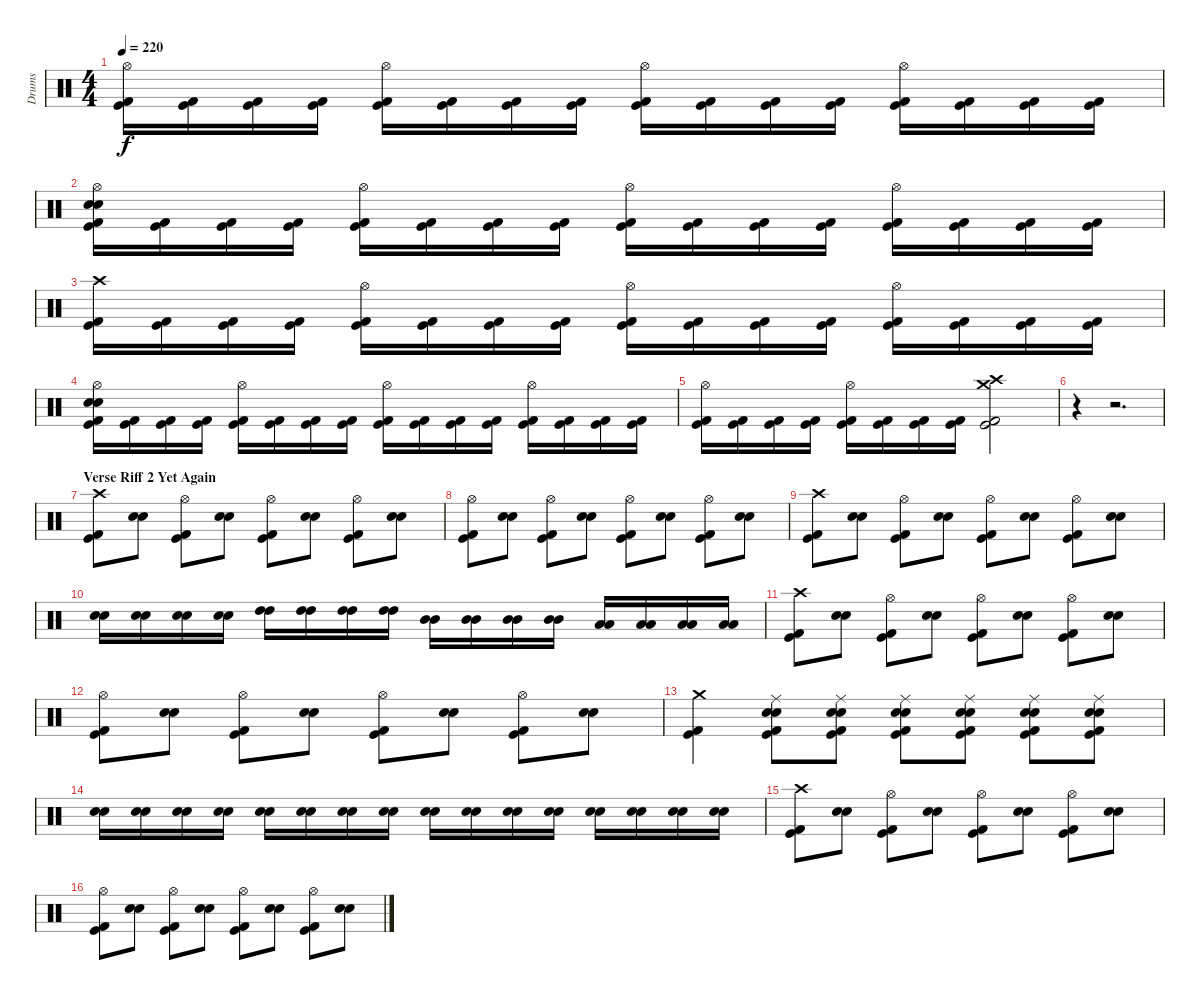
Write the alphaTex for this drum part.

\track ("Drums" "Drums") {instrument percussion}
\staff {score}
\articulation defaults
\ts (4 4)
\tempo 220
\clef neutral
\ks c
("Hi-Hat (open)" "Kick (hit) 2" "Kick (hit)").16{dy f} ("Kick (hit) 2" "Kick (hit)").16 ("Kick (hit) 2" "Kick (hit)").16 ("Kick (hit) 2" "Kick (hit)").16 ("Hi-Hat (open)" "Kick (hit) 2" "Kick (hit)").16 ("Kick (hit) 2" "Kick (hit)").16 ("Kick (hit) 2" "Kick (hit)").16 ("Kick (hit) 2" "Kick (hit)").16 ("Hi-Hat (open)" "Kick (hit) 2" "Kick (hit)").16 ("Kick (hit) 2" "Kick (hit)").16 ("Kick (hit) 2" "Kick (hit)").16 ("Kick (hit) 2" "Kick (hit)").16 ("Hi-Hat (open)" "Kick (hit) 2" "Kick (hit)").16 ("Kick (hit) 2" "Kick (hit)").16 ("Kick (hit) 2" "Kick (hit)").16 ("Kick (hit) 2" "Kick (hit)").16 |
("Hi-Hat (open)" "Electric Snare (hit)" "Electric Snare (hit)" "Kick (hit) 2" "Kick (hit)").16 ("Kick (hit) 2" "Kick (hit)").16 ("Kick (hit) 2" "Kick (hit)").16 ("Kick (hit) 2" "Kick (hit)").16 ("Hi-Hat (open)" "Kick (hit) 2" "Kick (hit)").16 ("Kick (hit) 2" "Kick (hit)").16 ("Kick (hit) 2" "Kick (hit)").16 ("Kick (hit) 2" "Kick (hit)").16 ("Hi-Hat (open)" "Kick (hit) 2" "Kick (hit)").16 ("Kick (hit) 2" "Kick (hit)").16 ("Kick (hit) 2" "Kick (hit)").16 ("Kick (hit) 2" "Kick (hit)").16 ("Hi-Hat (open)" "Kick (hit) 2" "Kick (hit)").16 ("Kick (hit) 2" "Kick (hit)").16 ("Kick (hit) 2" "Kick (hit)").16 ("Kick (hit) 2" "Kick (hit)").16 |
("Crash high (hit)" "Kick (hit) 2" "Kick (hit)").16 ("Kick (hit) 2" "Kick (hit)").16 ("Kick (hit) 2" "Kick (hit)").16 ("Kick (hit) 2" "Kick (hit)").16 ("Hi-Hat (open)" "Kick (hit) 2" "Kick (hit)").16 ("Kick (hit) 2" "Kick (hit)").16 ("Kick (hit) 2" "Kick (hit)").16 ("Kick (hit) 2" "Kick (hit)").16 ("Hi-Hat (open)" "Kick (hit) 2" "Kick (hit)").16 ("Kick (hit) 2" "Kick (hit)").16 ("Kick (hit) 2" "Kick (hit)").16 ("Kick (hit) 2" "Kick (hit)").16 ("Hi-Hat (open)" "Kick (hit) 2" "Kick (hit)").16 ("Kick (hit) 2" "Kick (hit)").16 ("Kick (hit) 2" "Kick (hit)").16 ("Kick (hit) 2" "Kick (hit)").16 |
("Hi-Hat (open)" "Electric Snare (hit)" "Electric Snare (hit)" "Kick (hit) 2" "Kick (hit)").16 ("Kick (hit) 2" "Kick (hit)").16 ("Kick (hit) 2" "Kick (hit)").16 ("Kick (hit) 2" "Kick (hit)").16 ("Hi-Hat (open)" "Kick (hit) 2" "Kick (hit)").16 ("Kick (hit) 2" "Kick (hit)").16 ("Kick (hit) 2" "Kick (hit)").16 ("Kick (hit) 2" "Kick (hit)").16 ("Hi-Hat (open)" "Kick (hit) 2" "Kick (hit)").16 ("Kick (hit) 2" "Kick (hit)").16 ("Kick (hit) 2" "Kick (hit)").16 ("Kick (hit) 2" "Kick (hit)").16 ("Hi-Hat (open)" "Kick (hit) 2" "Kick (hit)").16 ("Kick (hit) 2" "Kick (hit)").16 ("Kick (hit) 2" "Kick (hit)").16 ("Kick (hit) 2" "Kick (hit)").16 |
("Hi-Hat (open)" "Kick (hit) 2" "Kick (hit)").16 ("Kick (hit) 2" "Kick (hit)").16 ("Kick (hit) 2" "Kick (hit)").16 ("Kick (hit) 2" "Kick (hit)").16 ("Hi-Hat (open)" "Kick (hit) 2" "Kick (hit)").16 ("Kick (hit) 2" "Kick (hit)").16 ("Kick (hit) 2" "Kick (hit)").16 ("Kick (hit) 2" "Kick (hit)").16 ("Crash high (hit)" "Crash medium (hit)" "Kick (hit) 2" "Kick (hit)").2 |
r.4 r.2{d} |
\section ("" "Verse Riff 2 Yet Again")
("Crash high (hit)" "Kick (hit) 2" "Kick (hit)").8 ("Electric Snare (hit)" "Electric Snare (hit)").8 ("Hi-Hat (open)" "Kick (hit) 2" "Kick (hit)").8 ("Electric Snare (hit)" "Electric Snare (hit)").8 ("Hi-Hat (open)" "Kick (hit) 2" "Kick (hit)").8 ("Electric Snare (hit)" "Electric Snare (hit)").8 ("Hi-Hat (open)" "Kick (hit) 2" "Kick (hit)").8 ("Electric Snare (hit)" "Electric Snare (hit)").8 |
("Hi-Hat (open)" "Kick (hit) 2" "Kick (hit)").8 ("Electric Snare (hit)" "Electric Snare (hit)").8 ("Hi-Hat (open)" "Kick (hit) 2" "Kick (hit)").8 ("Electric Snare (hit)" "Electric Snare (hit)").8 ("Hi-Hat (open)" "Kick (hit) 2" "Kick (hit)").8 ("Electric Snare (hit)" "Electric Snare (hit)").8 ("Hi-Hat (open)" "Kick (hit) 2" "Kick (hit)").8 ("Electric Snare (hit)" "Electric Snare (hit)").8 |
("Crash high (hit)" "Kick (hit) 2" "Kick (hit)").8 ("Electric Snare (hit)" "Electric Snare (hit)").8 ("Hi-Hat (open)" "Kick (hit) 2" "Kick (hit)").8 ("Electric Snare (hit)" "Electric Snare (hit)").8 ("Hi-Hat (open)" "Kick (hit) 2" "Kick (hit)").8 ("Electric Snare (hit)" "Electric Snare (hit)").8 ("Hi-Hat (open)" "Kick (hit) 2" "Kick (hit)").8 ("Electric Snare (hit)" "Electric Snare (hit)").8 |
("Electric Snare (hit)" "Electric Snare (hit)").16 ("Electric Snare (hit)" "Electric Snare (hit)").16 ("Electric Snare (hit)" "Electric Snare (hit)").16 ("Electric Snare (hit)" "Electric Snare (hit)").16 ("High Tom (hit)" "High Tom (hit)").16 ("High Tom (hit)" "High Tom (hit)").16 ("High Tom (hit)" "High Tom (hit)").16 ("High Tom (hit)" "High Tom (hit)").16 ("Mid Tom (hit)" "Mid Tom (hit)").16 ("Mid Tom (hit)" "Mid Tom (hit)").16 ("Mid Tom (hit)" "Mid Tom (hit)").16 ("Mid Tom (hit)" "Mid Tom (hit)").16 ("Low Tom (hit)" "Low Tom (hit)").16 ("Low Tom (hit)" "Low Tom (hit)").16 ("Low Tom (hit)" "Low Tom (hit)").16 ("Low Tom (hit)" "Low Tom (hit)").16 |
("Crash high (hit)" "Kick (hit) 2" "Kick (hit)").8 ("Electric Snare (hit)" "Electric Snare (hit)").8 ("Hi-Hat (open)" "Kick (hit) 2" "Kick (hit)").8 ("Electric Snare (hit)" "Electric Snare (hit)").8 ("Hi-Hat (open)" "Kick (hit) 2" "Kick (hit)").8 ("Electric Snare (hit)" "Electric Snare (hit)").8 ("Hi-Hat (open)" "Kick (hit) 2" "Kick (hit)").8 ("Electric Snare (hit)" "Electric Snare (hit)").8 |
("Hi-Hat (open)" "Kick (hit) 2" "Kick (hit)").8 ("Electric Snare (hit)" "Electric Snare (hit)").8 ("Hi-Hat (open)" "Kick (hit) 2" "Kick (hit)").8 ("Electric Snare (hit)" "Electric Snare (hit)").8 ("Hi-Hat (open)" "Kick (hit) 2" "Kick (hit)").8 ("Electric Snare (hit)" "Electric Snare (hit)").8 ("Hi-Hat (open)" "Kick (hit) 2" "Kick (hit)").8 ("Electric Snare (hit)" "Electric Snare (hit)").8 |
("Crash medium (hit)" "Kick (hit) 2" "Kick (hit)").4 ("Ride (middle)" "Electric Snare (hit)" "Electric Snare (hit)" "Kick (hit) 2" "Kick (hit)").8 ("Ride (middle)" "Electric Snare (hit)" "Electric Snare (hit)" "Kick (hit) 2" "Kick (hit)").8 ("Ride (middle)" "Electric Snare (hit)" "Electric Snare (hit)" "Kick (hit) 2" "Kick (hit)").8 ("Ride (middle)" "Electric Snare (hit)" "Electric Snare (hit)" "Kick (hit) 2" "Kick (hit)").8 ("Ride (middle)" "Electric Snare (hit)" "Electric Snare (hit)" "Kick (hit) 2" "Kick (hit)").8 ("Ride (middle)" "Electric Snare (hit)" "Electric Snare (hit)" "Kick (hit) 2" "Kick (hit)").8 |
("Electric Snare (hit)" "Electric Snare (hit)").16 ("Electric Snare (hit)" "Electric Snare (hit)").16 ("Electric Snare (hit)" "Electric Snare (hit)").16 ("Electric Snare (hit)" "Electric Snare (hit)").16 ("Electric Snare (hit)" "Electric Snare (hit)").16 ("Electric Snare (hit)" "Electric Snare (hit)").16 ("Electric Snare (hit)" "Electric Snare (hit)").16 ("Electric Snare (hit)" "Electric Snare (hit)").16 ("Electric Snare (hit)" "Electric Snare (hit)").16 ("Electric Snare (hit)" "Electric Snare (hit)").16 ("Electric Snare (hit)" "Electric Snare (hit)").16 ("Electric Snare (hit)" "Electric Snare (hit)").16 ("Electric Snare (hit)" "Electric Snare (hit)").16 ("Electric Snare (hit)" "Electric Snare (hit)").16 ("Electric Snare (hit)" "Electric Snare (hit)").16 ("Electric Snare (hit)" "Electric Snare (hit)").16 |
("Crash high (hit)" "Kick (hit) 2" "Kick (hit)").8 ("Electric Snare (hit)" "Electric Snare (hit)").8 ("Hi-Hat (open)" "Kick (hit) 2" "Kick (hit)").8 ("Electric Snare (hit)" "Electric Snare (hit)").8 ("Hi-Hat (open)" "Kick (hit) 2" "Kick (hit)").8 ("Electric Snare (hit)" "Electric Snare (hit)").8 ("Hi-Hat (open)" "Kick (hit) 2" "Kick (hit)").8 ("Electric Snare (hit)" "Electric Snare (hit)").8 |
("Hi-Hat (open)" "Kick (hit) 2" "Kick (hit)").8 ("Electric Snare (hit)" "Electric Snare (hit)").8 ("Hi-Hat (open)" "Kick (hit) 2" "Kick (hit)").8 ("Electric Snare (hit)" "Electric Snare (hit)").8 ("Hi-Hat (open)" "Kick (hit) 2" "Kick (hit)").8 ("Electric Snare (hit)" "Electric Snare (hit)").8 ("Hi-Hat (open)" "Kick (hit) 2" "Kick (hit)").8 ("Electric Snare (hit)" "Electric Snare (hit)").8
